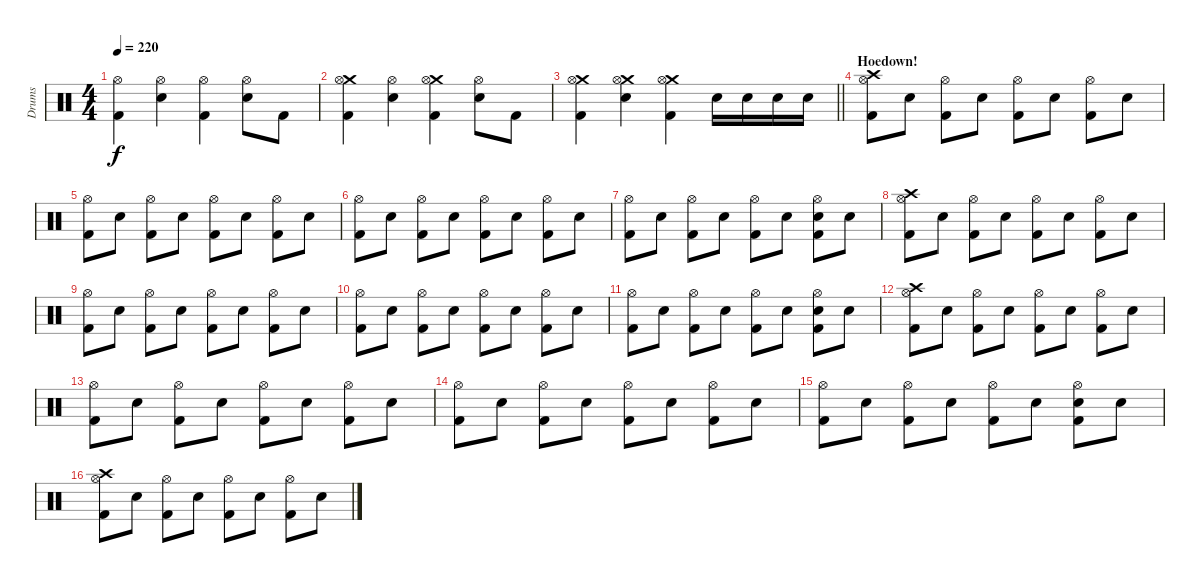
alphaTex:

\track ("Drums" "Drums") {instrument percussion}
\staff {score}
\articulation defaults
\ts (4 4)
\tempo 220
\clef neutral
\ks c
("Hi-Hat (open)" "Kick (hit) 2").4{dy f} ("Hi-Hat (open)" "Snare (hit) 2").4 ("Hi-Hat (open)" "Kick (hit) 2").4 ("Hi-Hat (open)" "Snare (hit) 2").8 "Kick (hit) 2".8 |
("Crash medium (hit)" "Hi-Hat (open)" "Kick (hit) 2").4 ("Hi-Hat (open)" "Snare (hit) 2").4 ("Crash medium (hit)" "Hi-Hat (open)" "Kick (hit) 2").4 ("Hi-Hat (open)" "Snare (hit) 2").8 "Kick (hit) 2".8 |
\barLineRight lightlight
("Crash medium (hit)" "Hi-Hat (open)" "Kick (hit) 2").4 ("Crash medium (hit)" "Hi-Hat (open)" "Snare (hit) 2").4 ("Crash medium (hit)" "Hi-Hat (open)" "Kick (hit) 2").4 "Snare (hit) 2".16 "Snare (hit) 2".16 "Snare (hit) 2".16 "Snare (hit) 2".16 |
\section ("" "Hoedown!")
("Crash high (hit)" "Hi-Hat (open)" "Kick (hit) 2").8 "Snare (hit) 2".8 ("Hi-Hat (open)" "Kick (hit) 2").8 "Snare (hit) 2".8 ("Hi-Hat (open)" "Kick (hit) 2").8 "Snare (hit) 2".8 ("Hi-Hat (open)" "Kick (hit) 2").8 "Snare (hit) 2".8 |
("Hi-Hat (open)" "Kick (hit) 2").8 "Snare (hit) 2".8 ("Hi-Hat (open)" "Kick (hit) 2").8 "Snare (hit) 2".8 ("Hi-Hat (open)" "Kick (hit) 2").8 "Snare (hit) 2".8 ("Hi-Hat (open)" "Kick (hit) 2").8 "Snare (hit) 2".8 |
("Hi-Hat (open)" "Kick (hit) 2").8 "Snare (hit) 2".8 ("Hi-Hat (open)" "Kick (hit) 2").8 "Snare (hit) 2".8 ("Hi-Hat (open)" "Kick (hit) 2").8 "Snare (hit) 2".8 ("Hi-Hat (open)" "Kick (hit) 2").8 "Snare (hit) 2".8 |
("Hi-Hat (open)" "Kick (hit) 2").8 "Snare (hit) 2".8 ("Hi-Hat (open)" "Kick (hit) 2").8 "Snare (hit) 2".8 ("Hi-Hat (open)" "Kick (hit) 2").8 "Snare (hit) 2".8 ("Hi-Hat (open)" "Snare (hit) 2" "Kick (hit) 2").8 "Snare (hit) 2".8 |
("Crash high (hit)" "Hi-Hat (open)" "Kick (hit) 2").8 "Snare (hit) 2".8 ("Hi-Hat (open)" "Kick (hit) 2").8 "Snare (hit) 2".8 ("Hi-Hat (open)" "Kick (hit) 2").8 "Snare (hit) 2".8 ("Hi-Hat (open)" "Kick (hit) 2").8 "Snare (hit) 2".8 |
("Hi-Hat (open)" "Kick (hit) 2").8 "Snare (hit) 2".8 ("Hi-Hat (open)" "Kick (hit) 2").8 "Snare (hit) 2".8 ("Hi-Hat (open)" "Kick (hit) 2").8 "Snare (hit) 2".8 ("Hi-Hat (open)" "Kick (hit) 2").8 "Snare (hit) 2".8 |
("Hi-Hat (open)" "Kick (hit) 2").8 "Snare (hit) 2".8 ("Hi-Hat (open)" "Kick (hit) 2").8 "Snare (hit) 2".8 ("Hi-Hat (open)" "Kick (hit) 2").8 "Snare (hit) 2".8 ("Hi-Hat (open)" "Kick (hit) 2").8 "Snare (hit) 2".8 |
("Hi-Hat (open)" "Kick (hit) 2").8 "Snare (hit) 2".8 ("Hi-Hat (open)" "Kick (hit) 2").8 "Snare (hit) 2".8 ("Hi-Hat (open)" "Kick (hit) 2").8 "Snare (hit) 2".8 ("Hi-Hat (open)" "Snare (hit) 2" "Kick (hit) 2").8 "Snare (hit) 2".8 |
("Crash high (hit)" "Hi-Hat (open)" "Kick (hit) 2").8 "Snare (hit) 2".8 ("Hi-Hat (open)" "Kick (hit) 2").8 "Snare (hit) 2".8 ("Hi-Hat (open)" "Kick (hit) 2").8 "Snare (hit) 2".8 ("Hi-Hat (open)" "Kick (hit) 2").8 "Snare (hit) 2".8 |
("Hi-Hat (open)" "Kick (hit) 2").8 "Snare (hit) 2".8 ("Hi-Hat (open)" "Kick (hit) 2").8 "Snare (hit) 2".8 ("Hi-Hat (open)" "Kick (hit) 2").8 "Snare (hit) 2".8 ("Hi-Hat (open)" "Kick (hit) 2").8 "Snare (hit) 2".8 |
("Hi-Hat (open)" "Kick (hit) 2").8 "Snare (hit) 2".8 ("Hi-Hat (open)" "Kick (hit) 2").8 "Snare (hit) 2".8 ("Hi-Hat (open)" "Kick (hit) 2").8 "Snare (hit) 2".8 ("Hi-Hat (open)" "Kick (hit) 2").8 "Snare (hit) 2".8 |
("Hi-Hat (open)" "Kick (hit) 2").8 "Snare (hit) 2".8 ("Hi-Hat (open)" "Kick (hit) 2").8 "Snare (hit) 2".8 ("Hi-Hat (open)" "Kick (hit) 2").8 "Snare (hit) 2".8 ("Hi-Hat (open)" "Snare (hit) 2" "Kick (hit) 2").8 "Snare (hit) 2".8 |
("Crash high (hit)" "Hi-Hat (open)" "Kick (hit) 2").8 "Snare (hit) 2".8 ("Hi-Hat (open)" "Kick (hit) 2").8 "Snare (hit) 2".8 ("Hi-Hat (open)" "Kick (hit) 2").8 "Snare (hit) 2".8 ("Hi-Hat (open)" "Kick (hit) 2").8 "Snare (hit) 2".8
